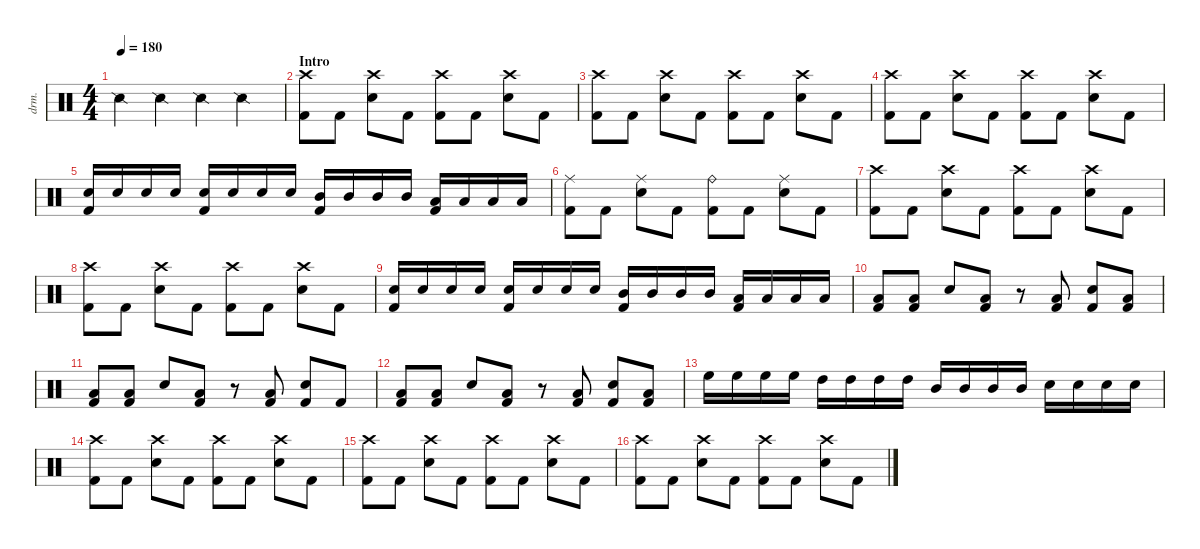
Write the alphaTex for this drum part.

\defaultSystemsLayout 4
\hideDynamics
\bracketExtendMode nobrackets
\otherSystemsTrackNameOrientation horizontal
\track ("Joosep" "drm.") {mute instrument percussion}
\staff {score}
\articulation defaults
\ts (4 4)
\beaming (8 2 2 2 2)
\tempo 180
\clef neutral
\ks c "Snare (side stick) 2".4{dy f beam Down} "Snare (side stick) 2".4{beam Down} "Snare (side stick) 2".4{beam Down} "Snare (side stick) 2".4{beam Down}
|
\section ("" "Intro")
("Crash high (hit)" "Kick (hit) 2").8{beam Down} "Kick (hit) 2".8{beam Down} ("Crash high (hit)" "Snare (hit) 2").8{beam Down} "Kick (hit) 2".8{beam Down} ("Crash high (hit)" "Kick (hit) 2").8{beam Down} "Kick (hit) 2".8{beam Down} ("Crash high (hit)" "Snare (hit) 2").8{beam Down} "Kick (hit) 2".8{beam Down} |
("Crash high (hit)" "Kick (hit) 2").8{beam Down} "Kick (hit) 2".8{beam Down} ("Crash high (hit)" "Snare (hit) 2").8{beam Down} "Kick (hit) 2".8{beam Down} ("Crash high (hit)" "Kick (hit) 2").8{beam Down} "Kick (hit) 2".8{beam Down} ("Crash high (hit)" "Snare (hit) 2").8{beam Down} "Kick (hit) 2".8{beam Down} |
("Crash high (hit)" "Kick (hit) 2").8{beam Down} "Kick (hit) 2".8{beam Down} ("Crash high (hit)" "Snare (hit) 2").8{beam Down} "Kick (hit) 2".8{beam Down} ("Crash high (hit)" "Kick (hit) 2").8{beam Down} "Kick (hit) 2".8{beam Down} ("Crash high (hit)" "Snare (hit) 2").8{beam Down} "Kick (hit) 2".8{beam Down} |
("Snare (hit) 2" "Kick (hit) 2").16{beam Up} "Snare (hit) 2".16{beam Up} "Snare (hit) 2".16{beam Up} "Snare (hit) 2".16{beam Up} ("Snare (hit) 2" "Kick (hit) 2").16{beam Up} "Snare (hit) 2".16{beam Up} "Snare (hit) 2".16{beam Up} "Snare (hit) 2".16{beam Up} ("Mid Tom (hit)" "Kick (hit) 2").16{beam Up} "Mid Tom (hit)".16{beam Up} "Mid Tom (hit)".16{beam Up} "Mid Tom (hit)".16{beam Up} ("Low Tom (hit)" "Kick (hit) 2").16{beam Up} "Low Tom (hit)".16{beam Up} "Low Tom (hit)".16{beam Up} "Low Tom (hit)".16{beam Up} |
("Kick (hit) 2" "Ride (middle)").8{beam Down} "Kick (hit) 2".8{beam Down} ("Snare (hit) 2" "Ride (middle)").8{beam Down} "Kick (hit) 2".8{beam Down} ("Kick (hit) 2" "Ride (bell)").8{beam Down} "Kick (hit) 2".8{beam Down} ("Snare (hit) 2" "Ride (middle)").8{beam Down} "Kick (hit) 2".8{beam Down} |
("Crash high (hit)" "Kick (hit) 2").8{beam Down} "Kick (hit) 2".8{beam Down} ("Crash high (hit)" "Snare (hit) 2").8{beam Down} "Kick (hit) 2".8{beam Down} ("Crash high (hit)" "Kick (hit) 2").8{beam Down} "Kick (hit) 2".8{beam Down} ("Crash high (hit)" "Snare (hit) 2").8{beam Down} "Kick (hit) 2".8{beam Down} |
("Crash high (hit)" "Kick (hit) 2").8{beam Down} "Kick (hit) 2".8{beam Down} ("Crash high (hit)" "Snare (hit) 2").8{beam Down} "Kick (hit) 2".8{beam Down} ("Crash high (hit)" "Kick (hit) 2").8{beam Down} "Kick (hit) 2".8{beam Down} ("Crash high (hit)" "Snare (hit) 2").8{beam Down} "Kick (hit) 2".8{beam Down} |
("Snare (hit) 2" "Kick (hit) 2").16{beam Up} "Snare (hit) 2".16{beam Up} "Snare (hit) 2".16{beam Up} "Snare (hit) 2".16{beam Up} ("Snare (hit) 2" "Kick (hit) 2").16{beam Up} "Snare (hit) 2".16{beam Up} "Snare (hit) 2".16{beam Up} "Snare (hit) 2".16{beam Up} ("Mid Tom (hit)" "Kick (hit) 2").16{beam Up} "Mid Tom (hit)".16{beam Up} "Mid Tom (hit)".16{beam Up} "Mid Tom (hit)".16{beam Up} ("Low Tom (hit)" "Kick (hit) 2").16{beam Up} "Low Tom (hit)".16{beam Up} "Low Tom (hit)".16{beam Up} "Low Tom (hit)".16{beam Up} |
\section ("" "")
("Kick (hit) 2" "Low Tom (hit)").8{beam Up} ("Kick (hit) 2" "Low Tom (hit)").8{beam Up} "Snare (hit) 2".8{beam Up} ("Kick (hit) 2" "Low Tom (hit)").8{beam Up} r.8{beam Up} ("Kick (hit) 2" "Low Tom (hit)").8{beam Up} ("Snare (hit) 2" "Kick (hit) 2").8{beam Up} ("Kick (hit) 2" "Low Tom (hit)").8{beam Up} |
("Kick (hit) 2" "Low Tom (hit)").8{beam Up} ("Kick (hit) 2" "Low Tom (hit)").8{beam Up} "Snare (hit) 2".8{beam Up} ("Kick (hit) 2" "Low Tom (hit)").8{beam Up} r.8{beam Up} ("Kick (hit) 2" "Low Tom (hit)").8{beam Up} ("Snare (hit) 2" "Kick (hit) 2").8{beam Up} "Kick (hit) 2".8{beam Up} |
("Kick (hit) 2" "Low Tom (hit)").8{beam Up} ("Kick (hit) 2" "Low Tom (hit)").8{beam Up} "Snare (hit) 2".8{beam Up} ("Kick (hit) 2" "Low Tom (hit)").8{beam Up} r.8{beam Up} ("Kick (hit) 2" "Low Tom (hit)").8{beam Up} ("Snare (hit) 2" "Kick (hit) 2").8{beam Up} ("Kick (hit) 2" "Low Tom (hit)").8{beam Up} |
"High Floor Tom (hit)".16{beam Down} "High Floor Tom (hit)".16{beam Down} "High Floor Tom (hit)".16{beam Down} "High Floor Tom (hit)".16{beam Down} "High Tom (hit)".16{beam Down} "High Tom (hit)".16{beam Down} "High Tom (hit)".16{beam Down} "High Tom (hit)".16{beam Down} "Mid Tom (hit)".16{beam Up} "Mid Tom (hit)".16{beam Up} "Mid Tom (hit)".16{beam Up} "Mid Tom (hit)".16{beam Up} "Snare (hit) 2".16{beam Down} "Snare (hit) 2".16{beam Down} "Snare (hit) 2".16{beam Down} "Snare (hit) 2".16{beam Down} |
\section ("" "")
("Crash high (hit)" "Kick (hit) 2").8{beam Down} "Kick (hit) 2".8{beam Down} ("Crash high (hit)" "Snare (hit) 2").8{beam Down} "Kick (hit) 2".8{beam Down} ("Crash high (hit)" "Kick (hit) 2").8{beam Down} "Kick (hit) 2".8{beam Down} ("Crash high (hit)" "Snare (hit) 2").8{beam Down} "Kick (hit) 2".8{beam Down} |
("Crash high (hit)" "Kick (hit) 2").8{beam Down} "Kick (hit) 2".8{beam Down} ("Crash high (hit)" "Snare (hit) 2").8{beam Down} "Kick (hit) 2".8{beam Down} ("Crash high (hit)" "Kick (hit) 2").8{beam Down} "Kick (hit) 2".8{beam Down} ("Crash high (hit)" "Snare (hit) 2").8{beam Down} "Kick (hit) 2".8{beam Down} |
("Crash high (hit)" "Kick (hit) 2").8{beam Down} "Kick (hit) 2".8{beam Down} ("Crash high (hit)" "Snare (hit) 2").8{beam Down} "Kick (hit) 2".8{beam Down} ("Crash high (hit)" "Kick (hit) 2").8{beam Down} "Kick (hit) 2".8{beam Down} ("Crash high (hit)" "Snare (hit) 2").8{beam Down} "Kick (hit) 2".8{beam Down}
